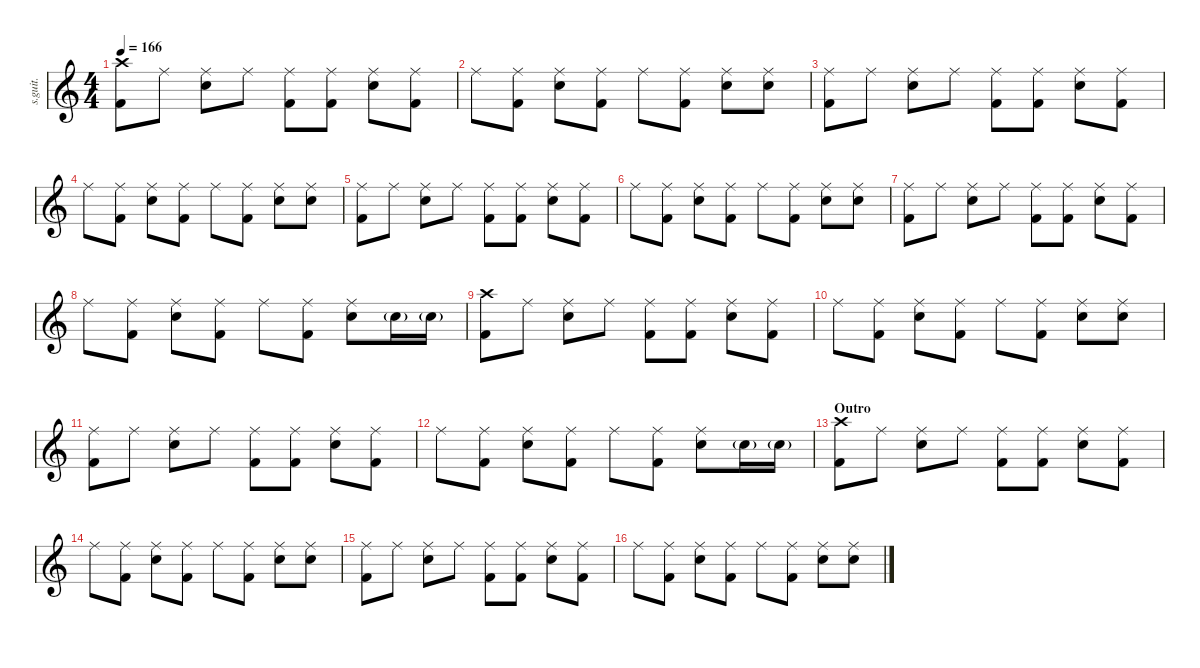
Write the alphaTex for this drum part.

\defaultSystemsLayout 4
\hideDynamics
\bracketExtendMode nobrackets
\track ("Phil Selway" "s.guit.") {instrument percussion}
\staff {score}
\articulation defaults
\ts (4 4)
\tempo 166
\clef g2
\ks c
("Crash high (hit)" "Kick (hit) 2").8{lyrics (0 "") lyrics (1 "") lyrics (2 "") lyrics (3 "") lyrics (4 "") dy f} "Ride (middle)".8{lyrics (0 "") lyrics (1 "") lyrics (2 "") lyrics (3 "") lyrics (4 "")} ("Ride (middle)" "Electric Snare (hit)").8{lyrics (0 "") lyrics (1 "") lyrics (2 "") lyrics (3 "") lyrics (4 "")} "Ride (middle)".8{lyrics (0 "") lyrics (1 "") lyrics (2 "") lyrics (3 "") lyrics (4 "")} ("Ride (middle)" "Kick (hit) 2").8{lyrics (0 "") lyrics (1 "") lyrics (2 "") lyrics (3 "") lyrics (4 "")} ("Ride (middle)" "Kick (hit) 2").8{lyrics (0 "") lyrics (1 "") lyrics (2 "") lyrics (3 "") lyrics (4 "")} ("Ride (middle)" "Electric Snare (hit)").8{lyrics (0 "") lyrics (1 "") lyrics (2 "") lyrics (3 "") lyrics (4 "")} ("Ride (middle)" "Kick (hit) 2").8{lyrics (0 "") lyrics (1 "") lyrics (2 "") lyrics (3 "") lyrics (4 "")} |
"Ride (middle)".8{lyrics (0 "") lyrics (1 "") lyrics (2 "") lyrics (3 "") lyrics (4 "")} ("Ride (middle)" "Kick (hit) 2").8{lyrics (0 "") lyrics (1 "") lyrics (2 "") lyrics (3 "") lyrics (4 "")} ("Ride (middle)" "Electric Snare (hit)").8{lyrics (0 "") lyrics (1 "") lyrics (2 "") lyrics (3 "") lyrics (4 "")} ("Ride (middle)" "Kick (hit) 2").8{lyrics (0 "") lyrics (1 "") lyrics (2 "") lyrics (3 "") lyrics (4 "")} "Ride (middle)".8{lyrics (0 "") lyrics (1 "") lyrics (2 "") lyrics (3 "") lyrics (4 "")} ("Ride (middle)" "Kick (hit) 2").8{lyrics (0 "") lyrics (1 "") lyrics (2 "") lyrics (3 "") lyrics (4 "")} ("Ride (middle)" "Electric Snare (hit)").8{lyrics (0 "") lyrics (1 "") lyrics (2 "") lyrics (3 "") lyrics (4 "")} ("Ride (middle)" "Electric Snare (hit)").8{lyrics (0 "") lyrics (1 "") lyrics (2 "") lyrics (3 "") lyrics (4 "")} |
("Ride (middle)" "Kick (hit) 2").8{lyrics (0 "") lyrics (1 "") lyrics (2 "") lyrics (3 "") lyrics (4 "")} "Ride (middle)".8{lyrics (0 "") lyrics (1 "") lyrics (2 "") lyrics (3 "") lyrics (4 "")} ("Ride (middle)" "Electric Snare (hit)").8{lyrics (0 "") lyrics (1 "") lyrics (2 "") lyrics (3 "") lyrics (4 "")} "Ride (middle)".8{lyrics (0 "") lyrics (1 "") lyrics (2 "") lyrics (3 "") lyrics (4 "")} ("Ride (middle)" "Kick (hit) 2").8{lyrics (0 "") lyrics (1 "") lyrics (2 "") lyrics (3 "") lyrics (4 "")} ("Ride (middle)" "Kick (hit) 2").8{lyrics (0 "") lyrics (1 "") lyrics (2 "") lyrics (3 "") lyrics (4 "")} ("Ride (middle)" "Electric Snare (hit)").8{lyrics (0 "") lyrics (1 "") lyrics (2 "") lyrics (3 "") lyrics (4 "")} ("Ride (middle)" "Kick (hit) 2").8{lyrics (0 "") lyrics (1 "") lyrics (2 "") lyrics (3 "") lyrics (4 "")} |
"Ride (middle)".8{lyrics (0 "") lyrics (1 "") lyrics (2 "") lyrics (3 "") lyrics (4 "")} ("Ride (middle)" "Kick (hit) 2").8{lyrics (0 "") lyrics (1 "") lyrics (2 "") lyrics (3 "") lyrics (4 "")} ("Ride (middle)" "Electric Snare (hit)").8{lyrics (0 "") lyrics (1 "") lyrics (2 "") lyrics (3 "") lyrics (4 "")} ("Ride (middle)" "Kick (hit) 2").8{lyrics (0 "") lyrics (1 "") lyrics (2 "") lyrics (3 "") lyrics (4 "")} "Ride (middle)".8{lyrics (0 "") lyrics (1 "") lyrics (2 "") lyrics (3 "") lyrics (4 "")} ("Ride (middle)" "Kick (hit) 2").8{lyrics (0 "") lyrics (1 "") lyrics (2 "") lyrics (3 "") lyrics (4 "")} ("Ride (middle)" "Electric Snare (hit)").8{lyrics (0 "") lyrics (1 "") lyrics (2 "") lyrics (3 "") lyrics (4 "")} ("Ride (middle)" "Electric Snare (hit)").8{lyrics (0 "") lyrics (1 "") lyrics (2 "") lyrics (3 "") lyrics (4 "")} |
("Ride (middle)" "Kick (hit) 2").8{lyrics (0 "") lyrics (1 "") lyrics (2 "") lyrics (3 "") lyrics (4 "")} "Ride (middle)".8{lyrics (0 "") lyrics (1 "") lyrics (2 "") lyrics (3 "") lyrics (4 "")} ("Ride (middle)" "Electric Snare (hit)").8{lyrics (0 "") lyrics (1 "") lyrics (2 "") lyrics (3 "") lyrics (4 "")} "Ride (middle)".8{lyrics (0 "") lyrics (1 "") lyrics (2 "") lyrics (3 "") lyrics (4 "")} ("Ride (middle)" "Kick (hit) 2").8{lyrics (0 "") lyrics (1 "") lyrics (2 "") lyrics (3 "") lyrics (4 "")} ("Ride (middle)" "Kick (hit) 2").8{lyrics (0 "") lyrics (1 "") lyrics (2 "") lyrics (3 "") lyrics (4 "")} ("Ride (middle)" "Electric Snare (hit)").8{lyrics (0 "") lyrics (1 "") lyrics (2 "") lyrics (3 "") lyrics (4 "")} ("Ride (middle)" "Kick (hit) 2").8{lyrics (0 "") lyrics (1 "") lyrics (2 "") lyrics (3 "") lyrics (4 "")} |
"Ride (middle)".8{lyrics (0 "") lyrics (1 "") lyrics (2 "") lyrics (3 "") lyrics (4 "")} ("Ride (middle)" "Kick (hit) 2").8{lyrics (0 "") lyrics (1 "") lyrics (2 "") lyrics (3 "") lyrics (4 "")} ("Ride (middle)" "Electric Snare (hit)").8{lyrics (0 "") lyrics (1 "") lyrics (2 "") lyrics (3 "") lyrics (4 "")} ("Ride (middle)" "Kick (hit) 2").8{lyrics (0 "") lyrics (1 "") lyrics (2 "") lyrics (3 "") lyrics (4 "")} "Ride (middle)".8{lyrics (0 "") lyrics (1 "") lyrics (2 "") lyrics (3 "") lyrics (4 "")} ("Ride (middle)" "Kick (hit) 2").8{lyrics (0 "") lyrics (1 "") lyrics (2 "") lyrics (3 "") lyrics (4 "")} ("Ride (middle)" "Electric Snare (hit)").8{lyrics (0 "") lyrics (1 "") lyrics (2 "") lyrics (3 "") lyrics (4 "")} ("Ride (middle)" "Electric Snare (hit)").8{lyrics (0 "") lyrics (1 "") lyrics (2 "") lyrics (3 "") lyrics (4 "")} |
("Ride (middle)" "Kick (hit) 2").8{lyrics (0 "") lyrics (1 "") lyrics (2 "") lyrics (3 "") lyrics (4 "")} "Ride (middle)".8{lyrics (0 "") lyrics (1 "") lyrics (2 "") lyrics (3 "") lyrics (4 "")} ("Ride (middle)" "Electric Snare (hit)").8{lyrics (0 "") lyrics (1 "") lyrics (2 "") lyrics (3 "") lyrics (4 "")} "Ride (middle)".8{lyrics (0 "") lyrics (1 "") lyrics (2 "") lyrics (3 "") lyrics (4 "")} ("Ride (middle)" "Kick (hit) 2").8{lyrics (0 "") lyrics (1 "") lyrics (2 "") lyrics (3 "") lyrics (4 "")} ("Ride (middle)" "Kick (hit) 2").8{lyrics (0 "") lyrics (1 "") lyrics (2 "") lyrics (3 "") lyrics (4 "")} ("Ride (middle)" "Electric Snare (hit)").8{lyrics (0 "") lyrics (1 "") lyrics (2 "") lyrics (3 "") lyrics (4 "")} ("Ride (middle)" "Kick (hit) 2").8{lyrics (0 "") lyrics (1 "") lyrics (2 "") lyrics (3 "") lyrics (4 "")} |
"Ride (middle)".8{lyrics (0 "") lyrics (1 "") lyrics (2 "") lyrics (3 "") lyrics (4 "")} ("Ride (middle)" "Kick (hit) 2").8{lyrics (0 "") lyrics (1 "") lyrics (2 "") lyrics (3 "") lyrics (4 "")} ("Ride (middle)" "Electric Snare (hit)").8{lyrics (0 "") lyrics (1 "") lyrics (2 "") lyrics (3 "") lyrics (4 "")} ("Ride (middle)" "Kick (hit) 2").8{lyrics (0 "") lyrics (1 "") lyrics (2 "") lyrics (3 "") lyrics (4 "")} "Ride (middle)".8{lyrics (0 "") lyrics (1 "") lyrics (2 "") lyrics (3 "") lyrics (4 "")} ("Ride (middle)" "Kick (hit) 2").8{lyrics (0 "") lyrics (1 "") lyrics (2 "") lyrics (3 "") lyrics (4 "")} ("Ride (middle)" "Electric Snare (hit)").8{lyrics (0 "") lyrics (1 "") lyrics (2 "") lyrics (3 "") lyrics (4 "")} "Electric Snare (hit)"{g}.16{lyrics (0 "") lyrics (1 "") lyrics (2 "") lyrics (3 "") lyrics (4 "")} "Electric Snare (hit)"{g}.16{lyrics (0 "") lyrics (1 "") lyrics (2 "") lyrics (3 "") lyrics (4 "")} |
("Crash high (hit)" "Kick (hit) 2").8{lyrics (0 "") lyrics (1 "") lyrics (2 "") lyrics (3 "") lyrics (4 "")} "Ride (middle)".8{lyrics (0 "") lyrics (1 "") lyrics (2 "") lyrics (3 "") lyrics (4 "")} ("Ride (middle)" "Electric Snare (hit)").8{lyrics (0 "") lyrics (1 "") lyrics (2 "") lyrics (3 "") lyrics (4 "")} "Ride (middle)".8{lyrics (0 "") lyrics (1 "") lyrics (2 "") lyrics (3 "") lyrics (4 "")} ("Ride (middle)" "Kick (hit) 2").8{lyrics (0 "") lyrics (1 "") lyrics (2 "") lyrics (3 "") lyrics (4 "")} ("Ride (middle)" "Kick (hit) 2").8{lyrics (0 "") lyrics (1 "") lyrics (2 "") lyrics (3 "") lyrics (4 "")} ("Ride (middle)" "Electric Snare (hit)").8{lyrics (0 "") lyrics (1 "") lyrics (2 "") lyrics (3 "") lyrics (4 "")} ("Ride (middle)" "Kick (hit) 2").8{lyrics (0 "") lyrics (1 "") lyrics (2 "") lyrics (3 "") lyrics (4 "")} |
"Ride (middle)".8{lyrics (0 "") lyrics (1 "") lyrics (2 "") lyrics (3 "") lyrics (4 "")} ("Ride (middle)" "Kick (hit) 2").8{lyrics (0 "") lyrics (1 "") lyrics (2 "") lyrics (3 "") lyrics (4 "")} ("Ride (middle)" "Electric Snare (hit)").8{lyrics (0 "") lyrics (1 "") lyrics (2 "") lyrics (3 "") lyrics (4 "")} ("Ride (middle)" "Kick (hit) 2").8{lyrics (0 "") lyrics (1 "") lyrics (2 "") lyrics (3 "") lyrics (4 "")} "Ride (middle)".8{lyrics (0 "") lyrics (1 "") lyrics (2 "") lyrics (3 "") lyrics (4 "")} ("Ride (middle)" "Kick (hit) 2").8{lyrics (0 "") lyrics (1 "") lyrics (2 "") lyrics (3 "") lyrics (4 "")} ("Ride (middle)" "Electric Snare (hit)").8{lyrics (0 "") lyrics (1 "") lyrics (2 "") lyrics (3 "") lyrics (4 "")} ("Ride (middle)" "Electric Snare (hit)").8{lyrics (0 "") lyrics (1 "") lyrics (2 "") lyrics (3 "") lyrics (4 "")} |
("Ride (middle)" "Kick (hit) 2").8{lyrics (0 "") lyrics (1 "") lyrics (2 "") lyrics (3 "") lyrics (4 "")} "Ride (middle)".8{lyrics (0 "") lyrics (1 "") lyrics (2 "") lyrics (3 "") lyrics (4 "")} ("Ride (middle)" "Electric Snare (hit)").8{lyrics (0 "") lyrics (1 "") lyrics (2 "") lyrics (3 "") lyrics (4 "")} "Ride (middle)".8{lyrics (0 "") lyrics (1 "") lyrics (2 "") lyrics (3 "") lyrics (4 "")} ("Ride (middle)" "Kick (hit) 2").8{lyrics (0 "") lyrics (1 "") lyrics (2 "") lyrics (3 "") lyrics (4 "")} ("Ride (middle)" "Kick (hit) 2").8{lyrics (0 "") lyrics (1 "") lyrics (2 "") lyrics (3 "") lyrics (4 "")} ("Ride (middle)" "Electric Snare (hit)").8{lyrics (0 "") lyrics (1 "") lyrics (2 "") lyrics (3 "") lyrics (4 "")} ("Ride (middle)" "Kick (hit) 2").8{lyrics (0 "") lyrics (1 "") lyrics (2 "") lyrics (3 "") lyrics (4 "")} |
"Ride (middle)".8{lyrics (0 "") lyrics (1 "") lyrics (2 "") lyrics (3 "") lyrics (4 "")} ("Ride (middle)" "Kick (hit) 2").8{lyrics (0 "") lyrics (1 "") lyrics (2 "") lyrics (3 "") lyrics (4 "")} ("Ride (middle)" "Electric Snare (hit)").8{lyrics (0 "") lyrics (1 "") lyrics (2 "") lyrics (3 "") lyrics (4 "")} ("Ride (middle)" "Kick (hit) 2").8{lyrics (0 "") lyrics (1 "") lyrics (2 "") lyrics (3 "") lyrics (4 "")} "Ride (middle)".8{lyrics (0 "") lyrics (1 "") lyrics (2 "") lyrics (3 "") lyrics (4 "")} ("Ride (middle)" "Kick (hit) 2").8{lyrics (0 "") lyrics (1 "") lyrics (2 "") lyrics (3 "") lyrics (4 "")} ("Ride (middle)" "Electric Snare (hit)").8{lyrics (0 "") lyrics (1 "") lyrics (2 "") lyrics (3 "") lyrics (4 "")} "Electric Snare (hit)"{g}.16{lyrics (0 "") lyrics (1 "") lyrics (2 "") lyrics (3 "") lyrics (4 "")} "Electric Snare (hit)"{g}.16{lyrics (0 "") lyrics (1 "") lyrics (2 "") lyrics (3 "") lyrics (4 "")} |
\section ("" "Outro")
("Crash high (hit)" "Kick (hit) 2").8{lyrics (0 "") lyrics (1 "") lyrics (2 "") lyrics (3 "") lyrics (4 "")} "Ride (middle)".8{lyrics (0 "") lyrics (1 "") lyrics (2 "") lyrics (3 "") lyrics (4 "")} ("Ride (middle)" "Electric Snare (hit)").8{lyrics (0 "") lyrics (1 "") lyrics (2 "") lyrics (3 "") lyrics (4 "")} "Ride (middle)".8{lyrics (0 "") lyrics (1 "") lyrics (2 "") lyrics (3 "") lyrics (4 "")} ("Ride (middle)" "Kick (hit) 2").8{lyrics (0 "") lyrics (1 "") lyrics (2 "") lyrics (3 "") lyrics (4 "")} ("Ride (middle)" "Kick (hit) 2").8{lyrics (0 "") lyrics (1 "") lyrics (2 "") lyrics (3 "") lyrics (4 "")} ("Ride (middle)" "Electric Snare (hit)").8{lyrics (0 "") lyrics (1 "") lyrics (2 "") lyrics (3 "") lyrics (4 "")} ("Ride (middle)" "Kick (hit) 2").8{lyrics (0 "") lyrics (1 "") lyrics (2 "") lyrics (3 "") lyrics (4 "")} |
"Ride (middle)".8{lyrics (0 "") lyrics (1 "") lyrics (2 "") lyrics (3 "") lyrics (4 "")} ("Ride (middle)" "Kick (hit) 2").8{lyrics (0 "") lyrics (1 "") lyrics (2 "") lyrics (3 "") lyrics (4 "")} ("Ride (middle)" "Electric Snare (hit)").8{lyrics (0 "") lyrics (1 "") lyrics (2 "") lyrics (3 "") lyrics (4 "")} ("Ride (middle)" "Kick (hit) 2").8{lyrics (0 "") lyrics (1 "") lyrics (2 "") lyrics (3 "") lyrics (4 "")} "Ride (middle)".8{lyrics (0 "") lyrics (1 "") lyrics (2 "") lyrics (3 "") lyrics (4 "")} ("Ride (middle)" "Kick (hit) 2").8{lyrics (0 "") lyrics (1 "") lyrics (2 "") lyrics (3 "") lyrics (4 "")} ("Ride (middle)" "Electric Snare (hit)").8{lyrics (0 "") lyrics (1 "") lyrics (2 "") lyrics (3 "") lyrics (4 "")} ("Ride (middle)" "Electric Snare (hit)").8{lyrics (0 "") lyrics (1 "") lyrics (2 "") lyrics (3 "") lyrics (4 "")} |
("Ride (middle)" "Kick (hit) 2").8{lyrics (0 "") lyrics (1 "") lyrics (2 "") lyrics (3 "") lyrics (4 "")} "Ride (middle)".8{lyrics (0 "") lyrics (1 "") lyrics (2 "") lyrics (3 "") lyrics (4 "")} ("Ride (middle)" "Electric Snare (hit)").8{lyrics (0 "") lyrics (1 "") lyrics (2 "") lyrics (3 "") lyrics (4 "")} "Ride (middle)".8{lyrics (0 "") lyrics (1 "") lyrics (2 "") lyrics (3 "") lyrics (4 "")} ("Ride (middle)" "Kick (hit) 2").8{lyrics (0 "") lyrics (1 "") lyrics (2 "") lyrics (3 "") lyrics (4 "")} ("Ride (middle)" "Kick (hit) 2").8{lyrics (0 "") lyrics (1 "") lyrics (2 "") lyrics (3 "") lyrics (4 "")} ("Ride (middle)" "Electric Snare (hit)").8{lyrics (0 "") lyrics (1 "") lyrics (2 "") lyrics (3 "") lyrics (4 "")} ("Ride (middle)" "Kick (hit) 2").8{lyrics (0 "") lyrics (1 "") lyrics (2 "") lyrics (3 "") lyrics (4 "")} |
"Ride (middle)".8{lyrics (0 "") lyrics (1 "") lyrics (2 "") lyrics (3 "") lyrics (4 "")} ("Ride (middle)" "Kick (hit) 2").8{lyrics (0 "") lyrics (1 "") lyrics (2 "") lyrics (3 "") lyrics (4 "")} ("Ride (middle)" "Electric Snare (hit)").8{lyrics (0 "") lyrics (1 "") lyrics (2 "") lyrics (3 "") lyrics (4 "")} ("Ride (middle)" "Kick (hit) 2").8{lyrics (0 "") lyrics (1 "") lyrics (2 "") lyrics (3 "") lyrics (4 "")} "Ride (middle)".8{lyrics (0 "") lyrics (1 "") lyrics (2 "") lyrics (3 "") lyrics (4 "")} ("Ride (middle)" "Kick (hit) 2").8{lyrics (0 "") lyrics (1 "") lyrics (2 "") lyrics (3 "") lyrics (4 "")} ("Ride (middle)" "Electric Snare (hit)").8{lyrics (0 "") lyrics (1 "") lyrics (2 "") lyrics (3 "") lyrics (4 "")} ("Ride (middle)" "Electric Snare (hit)").8{lyrics (0 "") lyrics (1 "") lyrics (2 "") lyrics (3 "") lyrics (4 "")}
